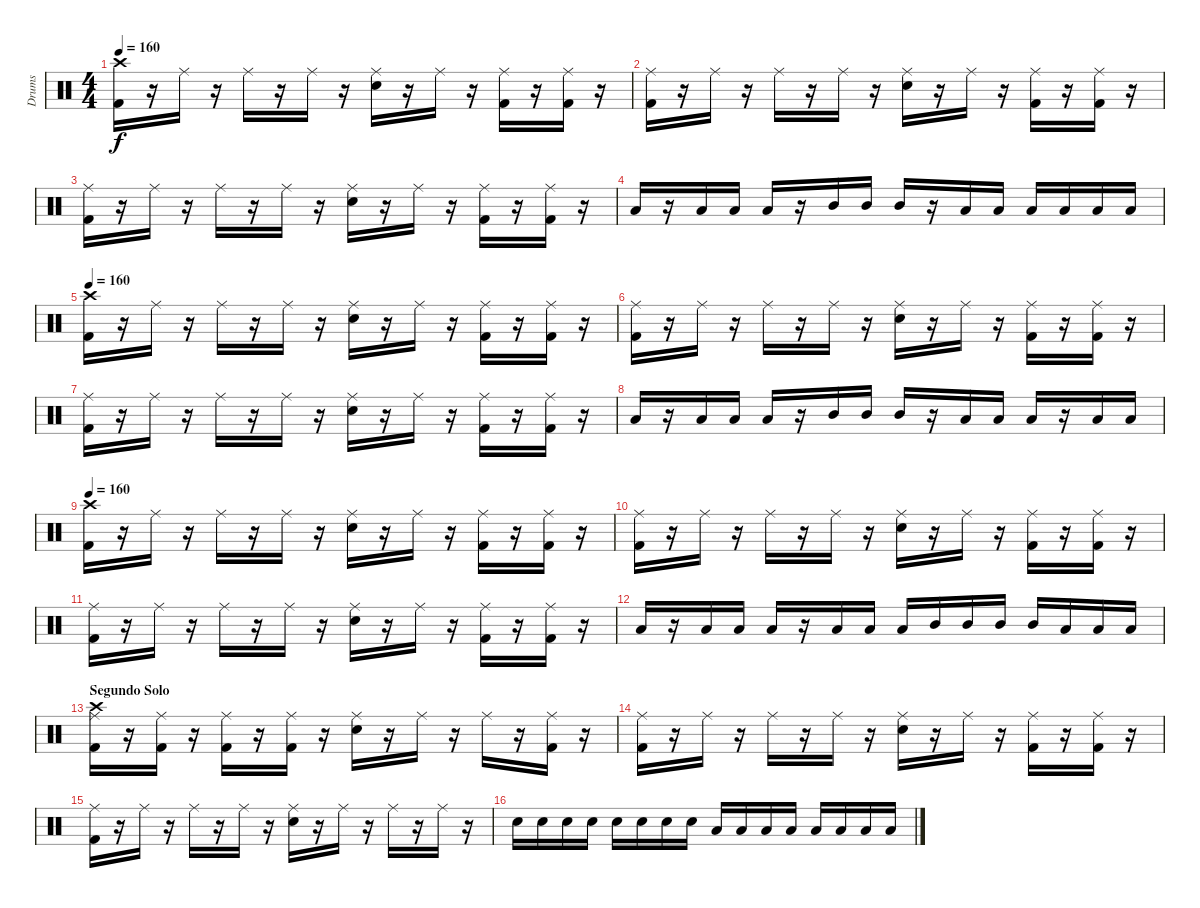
\track ("Drums               " "Drums     ") {instrument percussion}
\staff {score}
\articulation defaults
\ts (4 4)
\tempo 160
\clef neutral
\ks c
("Kick (hit) 2" "Crash high (hit)").16{dy f} r.16 "Ride (middle)".16 r.16 "Ride (middle)".16 r.16 "Ride (middle)".16 r.16 ("Snare (hit) 2" "Ride (middle)").16 r.16 "Ride (middle)".16 r.16 ("Kick (hit) 2" "Ride (middle)").16 r.16 ("Kick (hit) 2" "Ride (middle)").16 r.16 |
("Kick (hit) 2" "Ride (middle)").16 r.16 "Ride (middle)".16 r.16 "Ride (middle)".16 r.16 "Ride (middle)".16 r.16 ("Snare (hit) 2" "Ride (middle)").16 r.16 "Ride (middle)".16 r.16 ("Kick (hit) 2" "Ride (middle)").16 r.16 ("Kick (hit) 2" "Ride (middle)").16 r.16 |
("Kick (hit) 2" "Ride (middle)").16 r.16 "Ride (middle)".16 r.16 "Ride (middle)".16 r.16 "Ride (middle)".16 r.16 ("Snare (hit) 2" "Ride (middle)").16 r.16 "Ride (middle)".16 r.16 ("Kick (hit) 2" "Ride (middle)").16 r.16 ("Kick (hit) 2" "Ride (middle)").16 r.16 |
"Low Tom (hit)".16 r.16 "Low Tom (hit)".16 "Low Tom (hit)".16 "Low Tom (hit)".16 r.16 "Mid Tom (hit)".16 "Mid Tom (hit)".16 "Mid Tom (hit)".16 r.16 "Low Floor Tom (hit)".16 "Low Floor Tom (hit)".16 "Low Floor Tom (hit)".16 "Low Tom (hit)".16 "Low Tom (hit)".16 "Low Tom (hit)".16 |
\tempo 160
("Kick (hit) 2" "Crash high (hit)").16 r.16 "Ride (middle)".16 r.16 "Ride (middle)".16 r.16 "Ride (middle)".16 r.16 ("Snare (hit) 2" "Ride (middle)").16 r.16 "Ride (middle)".16 r.16 ("Kick (hit) 2" "Ride (middle)").16 r.16 ("Kick (hit) 2" "Ride (middle)").16 r.16 |
("Kick (hit) 2" "Ride (middle)").16 r.16 "Ride (middle)".16 r.16 "Ride (middle)".16 r.16 "Ride (middle)".16 r.16 ("Snare (hit) 2" "Ride (middle)").16 r.16 "Ride (middle)".16 r.16 ("Kick (hit) 2" "Ride (middle)").16 r.16 ("Kick (hit) 2" "Ride (middle)").16 r.16 |
("Kick (hit) 2" "Ride (middle)").16 r.16 "Ride (middle)".16 r.16 "Ride (middle)".16 r.16 "Ride (middle)".16 r.16 ("Snare (hit) 2" "Ride (middle)").16 r.16 "Ride (middle)".16 r.16 ("Kick (hit) 2" "Ride (middle)").16 r.16 ("Kick (hit) 2" "Ride (middle)").16 r.16 |
"Low Floor Tom (hit)".16 r.16 "Low Floor Tom (hit)".16 "Low Floor Tom (hit)".16 "Low Floor Tom (hit)".16 r.16 "Mid Tom (hit)".16 "Mid Tom (hit)".16 "Mid Tom (hit)".16 r.16 "Low Tom (hit)".16 "Low Tom (hit)".16 "Low Tom (hit)".16 r.16 "Low Tom (hit)".16 "Low Tom (hit)".16 |
\tempo 160
("Kick (hit) 2" "Crash high (hit)").16 r.16 "Ride (middle)".16 r.16 "Ride (middle)".16 r.16 "Ride (middle)".16 r.16 ("Snare (hit) 2" "Ride (middle)").16 r.16 "Ride (middle)".16 r.16 ("Kick (hit) 2" "Ride (middle)").16 r.16 ("Kick (hit) 2" "Ride (middle)").16 r.16 |
("Kick (hit) 2" "Ride (middle)").16 r.16 "Ride (middle)".16 r.16 "Ride (middle)".16 r.16 "Ride (middle)".16 r.16 ("Snare (hit) 2" "Ride (middle)").16 r.16 "Ride (middle)".16 r.16 ("Kick (hit) 2" "Ride (middle)").16 r.16 ("Kick (hit) 2" "Ride (middle)").16 r.16 |
("Kick (hit) 2" "Ride (middle)").16 r.16 "Ride (middle)".16 r.16 "Ride (middle)".16 r.16 "Ride (middle)".16 r.16 ("Snare (hit) 2" "Ride (middle)").16 r.16 "Ride (middle)".16 r.16 ("Kick (hit) 2" "Ride (middle)").16 r.16 ("Kick (hit) 2" "Ride (middle)").16 r.16 |
"Low Floor Tom (hit)".16 r.16 "Low Floor Tom (hit)".16 "Low Floor Tom (hit)".16 "Low Floor Tom (hit)".16 r.16 "Low Tom (hit)".16 "Low Tom (hit)".16 "Low Tom (hit)".16 "Mid Tom (hit)".16 "Mid Tom (hit)".16 "Mid Tom (hit)".16 "Mid Tom (hit)".16 "Low Tom (hit)".16 "Low Tom (hit)".16 "Low Tom (hit)".16 |
\section ("" "Segundo Solo")
("Kick (hit) 2" "Crash high (hit)" "Ride (middle)").16 r.16 ("Kick (hit) 2" "Ride (middle)").16 r.16 ("Kick (hit) 2" "Ride (middle)").16 r.16 ("Kick (hit) 2" "Ride (middle)").16 r.16 ("Snare (hit) 2" "Ride (middle)").16 r.16 "Ride (middle)".16 r.16 "Ride (middle)".16 r.16 ("Kick (hit) 2" "Ride (middle)").16 r.16 |
("Kick (hit) 2" "Ride (middle)").16 r.16 "Ride (middle)".16 r.16 "Ride (middle)".16 r.16 "Ride (middle)".16 r.16 ("Snare (hit) 2" "Ride (middle)").16 r.16 "Ride (middle)".16 r.16 ("Kick (hit) 2" "Ride (middle)").16 r.16 ("Kick (hit) 2" "Ride (middle)").16 r.16 |
("Kick (hit) 2" "Ride (middle)").16 r.16 "Ride (middle)".16 r.16 "Ride (middle)".16 r.16 "Ride (middle)".16 r.16 ("Snare (hit) 2" "Ride (middle)").16 r.16 "Ride (middle)".16 r.16 "Ride (middle)".16 r.16 "Ride (middle)".16 r.16 |
"Snare (hit) 2".16 "Snare (hit) 2".16 "Snare (hit) 2".16 "Snare (hit) 2".16 "Snare (hit) 2".16 "Snare (hit) 2".16 "Snare (hit) 2".16 "Snare (hit) 2".16 "Low Tom (hit)".16 "Low Tom (hit)".16 "Low Tom (hit)".16 "Low Tom (hit)".16 "Low Floor Tom (hit)".16 "Low Floor Tom (hit)".16 "Low Floor Tom (hit)".16 "Low Floor Tom (hit)".16
